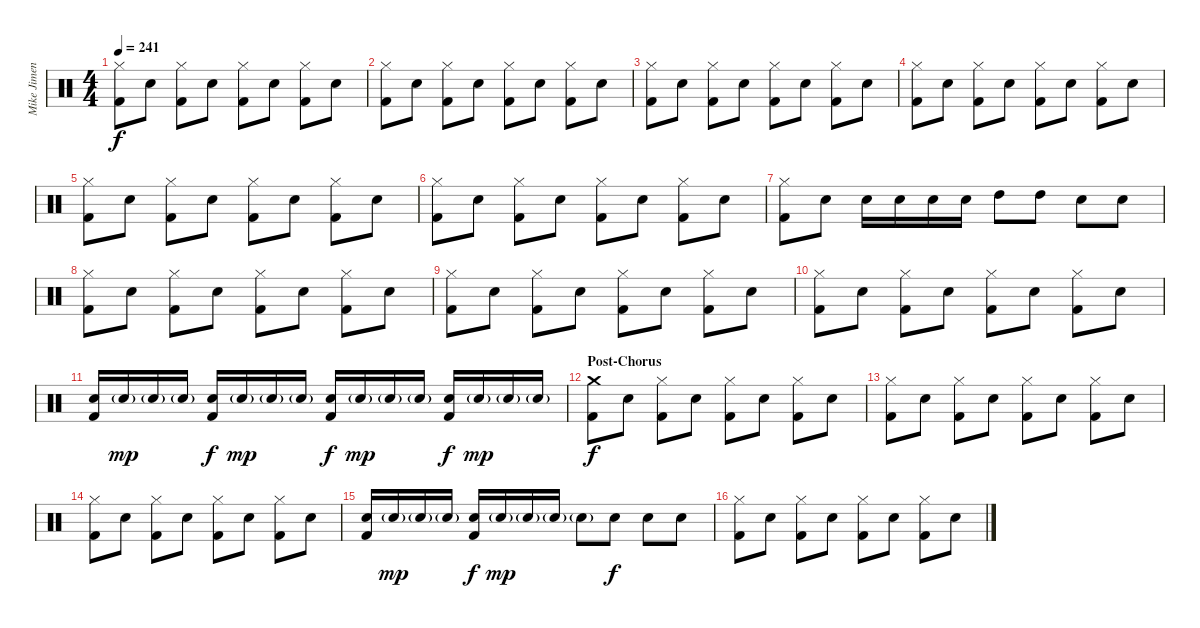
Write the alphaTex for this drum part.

\track ("Mike Jimenez" "Mike Jimen") {instrument percussion}
\staff {score}
\articulation defaults
\ts (4 4)
\tempo 241
\clef neutral
\ks c
("Hi-Hat (closed)" "Kick (hit) 2").8{dy f} "Electric Snare (hit)".8 ("Hi-Hat (closed)" "Kick (hit) 2").8 "Electric Snare (hit)".8 ("Hi-Hat (closed)" "Kick (hit) 2").8 "Electric Snare (hit)".8 ("Hi-Hat (closed)" "Kick (hit) 2").8 "Electric Snare (hit)".8 |
("Hi-Hat (closed)" "Kick (hit) 2").8 "Electric Snare (hit)".8 ("Hi-Hat (closed)" "Kick (hit) 2").8 "Electric Snare (hit)".8 ("Hi-Hat (closed)" "Kick (hit) 2").8 "Electric Snare (hit)".8 ("Hi-Hat (closed)" "Kick (hit) 2").8 "Electric Snare (hit)".8 |
("Hi-Hat (closed)" "Kick (hit) 2").8 "Electric Snare (hit)".8 ("Hi-Hat (closed)" "Kick (hit) 2").8 "Electric Snare (hit)".8 ("Hi-Hat (closed)" "Kick (hit) 2").8 "Electric Snare (hit)".8 ("Hi-Hat (closed)" "Kick (hit) 2").8 "Electric Snare (hit)".8 |
("Hi-Hat (closed)" "Kick (hit) 2").8 "Electric Snare (hit)".8 ("Hi-Hat (closed)" "Kick (hit) 2").8 "Electric Snare (hit)".8 ("Hi-Hat (closed)" "Kick (hit) 2").8 "Electric Snare (hit)".8 ("Hi-Hat (closed)" "Kick (hit) 2").8 "Electric Snare (hit)".8 |
("Hi-Hat (closed)" "Kick (hit) 2").8 "Electric Snare (hit)".8 ("Hi-Hat (closed)" "Kick (hit) 2").8 "Electric Snare (hit)".8 ("Hi-Hat (closed)" "Kick (hit) 2").8 "Electric Snare (hit)".8 ("Hi-Hat (closed)" "Kick (hit) 2").8 "Electric Snare (hit)".8 |
("Hi-Hat (closed)" "Kick (hit) 2").8 "Electric Snare (hit)".8 ("Hi-Hat (closed)" "Kick (hit) 2").8 "Electric Snare (hit)".8 ("Hi-Hat (closed)" "Kick (hit) 2").8 "Electric Snare (hit)".8 ("Hi-Hat (closed)" "Kick (hit) 2").8 "Electric Snare (hit)".8 |
("Hi-Hat (closed)" "Kick (hit) 2").8 "Electric Snare (hit)".8 "Electric Snare (hit)".16 "Electric Snare (hit)".16 "Electric Snare (hit)".16 "Electric Snare (hit)".16 "High Tom (hit)".8 "High Tom (hit)".8 "Electric Snare (hit)".8 "Electric Snare (hit)".8 |
("Hi-Hat (closed)" "Kick (hit) 2").8 "Electric Snare (hit)".8 ("Hi-Hat (closed)" "Kick (hit) 2").8 "Electric Snare (hit)".8 ("Hi-Hat (closed)" "Kick (hit) 2").8 "Electric Snare (hit)".8 ("Hi-Hat (closed)" "Kick (hit) 2").8 "Electric Snare (hit)".8 |
("Hi-Hat (closed)" "Kick (hit) 2").8 "Electric Snare (hit)".8 ("Hi-Hat (closed)" "Kick (hit) 2").8 "Electric Snare (hit)".8 ("Hi-Hat (closed)" "Kick (hit) 2").8 "Electric Snare (hit)".8 ("Hi-Hat (closed)" "Kick (hit) 2").8 "Electric Snare (hit)".8 |
("Hi-Hat (closed)" "Kick (hit) 2").8 "Electric Snare (hit)".8 ("Hi-Hat (closed)" "Kick (hit) 2").8 "Electric Snare (hit)".8 ("Hi-Hat (closed)" "Kick (hit) 2").8 "Electric Snare (hit)".8 ("Hi-Hat (closed)" "Kick (hit) 2").8 "Electric Snare (hit)".8 |
("Electric Snare (hit)" "Kick (hit) 2").16 "Electric Snare (hit)"{g}.16{dy mp} "Electric Snare (hit)"{g}.16 "Electric Snare (hit)"{g}.16 ("Electric Snare (hit)" "Kick (hit) 2").16{dy f} "Electric Snare (hit)"{g}.16{dy mp} "Electric Snare (hit)"{g}.16 "Electric Snare (hit)"{g}.16 ("Electric Snare (hit)" "Kick (hit) 2").16{dy f} "Electric Snare (hit)"{g}.16{dy mp} "Electric Snare (hit)"{g}.16 "Electric Snare (hit)"{g}.16 ("Electric Snare (hit)" "Kick (hit) 2").16{dy f} "Electric Snare (hit)"{g}.16{dy mp} "Electric Snare (hit)"{g}.16 "Electric Snare (hit)"{g}.16 |
\section ("" "Post-Chorus")
("Crash medium (hit)" "Kick (hit) 2").8{dy f} "Electric Snare (hit)".8 ("Hi-Hat (closed)" "Kick (hit) 2").8 "Electric Snare (hit)".8 ("Hi-Hat (closed)" "Kick (hit) 2").8 "Electric Snare (hit)".8 ("Hi-Hat (closed)" "Kick (hit) 2").8 "Electric Snare (hit)".8 |
("Hi-Hat (closed)" "Kick (hit) 2").8 "Electric Snare (hit)".8 ("Hi-Hat (closed)" "Kick (hit) 2").8 "Electric Snare (hit)".8 ("Hi-Hat (closed)" "Kick (hit) 2").8 "Electric Snare (hit)".8 ("Hi-Hat (closed)" "Kick (hit) 2").8 "Electric Snare (hit)".8 |
("Hi-Hat (closed)" "Kick (hit) 2").8 "Electric Snare (hit)".8 ("Hi-Hat (closed)" "Kick (hit) 2").8 "Electric Snare (hit)".8 ("Hi-Hat (closed)" "Kick (hit) 2").8 "Electric Snare (hit)".8 ("Hi-Hat (closed)" "Kick (hit) 2").8 "Electric Snare (hit)".8 |
("Electric Snare (hit)" "Kick (hit) 2").16 "Electric Snare (hit)"{g}.16{dy mp} "Electric Snare (hit)"{g}.16 "Electric Snare (hit)"{g}.16 ("Electric Snare (hit)" "Kick (hit) 2").16{dy f} "Electric Snare (hit)"{g}.16{dy mp} "Electric Snare (hit)"{g}.16 "Electric Snare (hit)"{g}.16 "Electric Snare (hit)"{g}.8 "Electric Snare (hit)".8{dy f} "Electric Snare (hit)".8 "Electric Snare (hit)".8 |
("Hi-Hat (closed)" "Kick (hit) 2").8 "Electric Snare (hit)".8 ("Hi-Hat (closed)" "Kick (hit) 2").8 "Electric Snare (hit)".8 ("Hi-Hat (closed)" "Kick (hit) 2").8 "Electric Snare (hit)".8 ("Hi-Hat (closed)" "Kick (hit) 2").8 "Electric Snare (hit)".8
